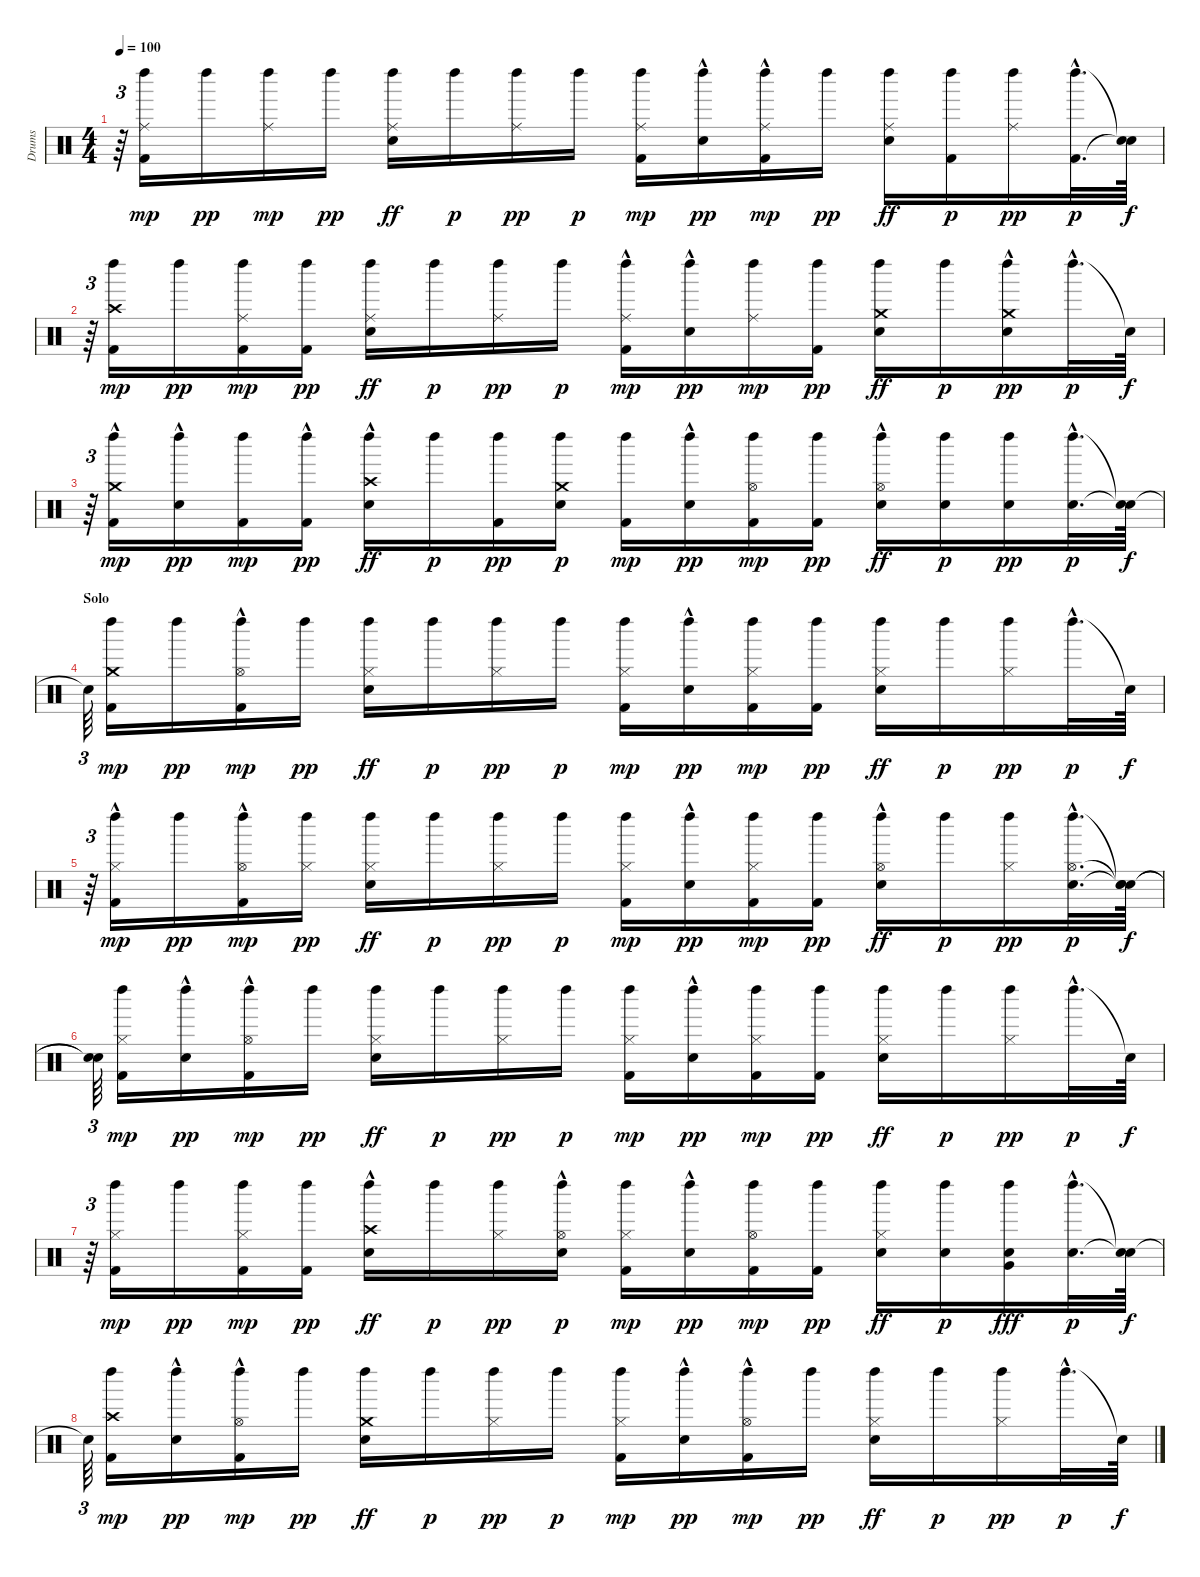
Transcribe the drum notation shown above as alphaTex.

\track ("Drums" "Drums") {instrument percussion}
\staff {score}
\articulation defaults
\ts (4 4)
\tempo 100
\clef neutral
\ks c
r.64{tu (3 2) dy f} ("Ride (middle)" "Kick (hit) 2" "Left Maraca (hit)").16{dy mp} "Left Maraca (hit)".16{dy pp} ("Ride (middle)" "Left Maraca (hit)").16{dy mp} "Left Maraca (hit)".16{dy pp} ("Ride (middle)" "Snare (hit) 2" "Left Maraca (hit)").16{dy ff} "Left Maraca (hit)".16{dy p} ("Ride (middle)" "Left Maraca (hit)").16{dy pp} "Left Maraca (hit)".16{dy p} ("Ride (middle)" "Kick (hit) 2" "Left Maraca (hit)").16{dy mp} ("Snare (hit) 2"{hac} "Left Maraca (hit)").16{dy pp} ("Ride (middle)" "Kick (hit) 2"{hac} "Left Maraca (hit)").16{dy mp} "Left Maraca (hit)".16{dy pp} ("Ride (middle)" "Snare (hit) 2" "Left Maraca (hit)").16{dy ff} ("Kick (hit) 2" "Left Maraca (hit)").16{dy p} ("Ride (middle)" "Left Maraca (hit)").16{dy pp} ("Kick (hit) 2"{hac} "Left Maraca (hit)"{hac}).32{d dy p} ("Snare (hit)"{t} "Snare (hit)"{t}).64{dy f} |
r.64{tu (3 2)} ("Crash high (hit)" "Kick (hit) 2" "Left Maraca (hit)").16{dy mp} "Left Maraca (hit)".16{dy pp} ("Ride (middle)" "Kick (hit) 2" "Left Maraca (hit)").16{dy mp} ("Kick (hit) 2" "Left Maraca (hit)").16{dy pp} ("Ride (middle)" "Snare (hit) 2" "Left Maraca (hit)").16{dy ff} "Left Maraca (hit)".16{dy p} ("Ride (middle)" "Left Maraca (hit)").16{dy pp} "Left Maraca (hit)".16{dy p} ("Ride (middle)" "Kick (hit) 2"{hac} "Left Maraca (hit)").16{dy mp} ("Snare (hit) 2"{hac} "Left Maraca (hit)").16{dy pp} ("Ride (middle)" "Left Maraca (hit)").16{dy mp} ("Kick (hit) 2" "Left Maraca (hit)").16{dy pp} ("Crash medium (hit)" "Snare (hit) 2" "Left Maraca (hit)").16{dy ff} "Left Maraca (hit)".16{dy p} ("Crash medium (hit)" "Snare (hit) 2"{hac} "Left Maraca (hit)").16{dy pp} "Left Maraca (hit)"{hac}.32{d dy p} "Snare (hit)"{t}.64{dy f} |
r.64{tu (3 2)} ("Crash medium (hit)"{hac} "Kick (hit) 2" "Left Maraca (hit)").16{dy mp} ("Snare (hit) 2"{hac} "Left Maraca (hit)").16{dy pp} ("Kick (hit) 2" "Left Maraca (hit)").16{dy mp} ("Kick (hit) 2"{hac} "Left Maraca (hit)").16{dy pp} ("Crash high (hit)" "Snare (hit) 2"{hac} "Left Maraca (hit)").16{dy ff} "Left Maraca (hit)".16{dy p} ("Kick (hit) 2" "Left Maraca (hit)").16{dy pp} ("Crash medium (hit)" "Snare (hit) 2" "Left Maraca (hit)").16{dy p} ("Kick (hit) 2" "Left Maraca (hit)").16{dy mp} ("Snare (hit) 2"{hac} "Left Maraca (hit)").16{dy pp} ("Kick (hit) 2" "Hi-Hat (open)" "Left Maraca (hit)").16{dy mp} ("Kick (hit) 2" "Left Maraca (hit)").16{dy pp} ("Snare (hit) 2" "Hi-Hat (open)"{hac} "Left Maraca (hit)").16{dy ff} ("Snare (hit) 2" "Left Maraca (hit)").16{dy p} ("Snare (hit) 2" "Left Maraca (hit)").16{dy pp} ("Snare (hit) 2"{hac} "Left Maraca (hit)"{hac}).32{d dy p} ("Snare (hit)"{t} "Snare (hit)"{t}).64{dy f} |
\section ("" "Solo")
"Snare (hit)"{t}.64{tu (3 2)} ("Crash medium (hit)" "Kick (hit) 2" "Left Maraca (hit)").16{dy mp} "Left Maraca (hit)".16{dy pp} ("Kick (hit) 2"{hac} "Hi-Hat (open)" "Left Maraca (hit)").16{dy mp} "Left Maraca (hit)".16{dy pp} ("Snare (hit) 2" "Hi-Hat (closed)" "Left Maraca (hit)").16{dy ff} "Left Maraca (hit)".16{dy p} ("Hi-Hat (closed)" "Left Maraca (hit)").16{dy pp} "Left Maraca (hit)".16{dy p} ("Kick (hit) 2" "Hi-Hat (closed)" "Left Maraca (hit)").16{dy mp} ("Snare (hit) 2"{hac} "Left Maraca (hit)").16{dy pp} ("Kick (hit) 2" "Hi-Hat (closed)" "Left Maraca (hit)").16{dy mp} ("Kick (hit) 2" "Left Maraca (hit)").16{dy pp} ("Snare (hit) 2" "Hi-Hat (closed)" "Left Maraca (hit)").16{dy ff} "Left Maraca (hit)".16{dy p} ("Hi-Hat (closed)" "Left Maraca (hit)").16{dy pp} "Left Maraca (hit)"{hac}.32{d dy p} "Snare (hit)"{t}.64{dy f} |
r.64{tu (3 2)} ("Kick (hit) 2" "Hi-Hat (closed)"{hac} "Left Maraca (hit)").16{dy mp} "Left Maraca (hit)".16{dy pp} ("Kick (hit) 2"{hac} "Hi-Hat (open)" "Left Maraca (hit)").16{dy mp} ("Hi-Hat (closed)" "Left Maraca (hit)").16{dy pp} ("Snare (hit) 2" "Hi-Hat (closed)" "Left Maraca (hit)").16{dy ff} "Left Maraca (hit)".16{dy p} ("Hi-Hat (closed)" "Left Maraca (hit)").16{dy pp} "Left Maraca (hit)".16{dy p} ("Kick (hit) 2" "Hi-Hat (closed)" "Left Maraca (hit)").16{dy mp} ("Snare (hit) 2"{hac} "Left Maraca (hit)").16{dy pp} ("Kick (hit) 2" "Hi-Hat (closed)" "Left Maraca (hit)").16{dy mp} ("Kick (hit) 2" "Left Maraca (hit)").16{dy pp} ("Snare (hit) 2"{hac} "Hi-Hat (open)"{hac} "Left Maraca (hit)").16{dy ff} "Left Maraca (hit)".16{dy p} ("Hi-Hat (closed)" "Left Maraca (hit)").16{dy pp} ("Snare (hit) 2"{hac} "Hi-Hat (open)"{hac} "Left Maraca (hit)"{hac}).32{d dy p} ("Snare (hit)"{t} "Snare (hit)"{t} "Snare (hit)"{t}).64{dy f} |
("Snare (hit)"{t} "Snare (hit)"{t}).64{tu (3 2)} ("Kick (hit) 2" "Hi-Hat (closed)" "Left Maraca (hit)").16{dy mp} ("Snare (hit) 2"{hac} "Left Maraca (hit)").16{dy pp} ("Kick (hit) 2"{hac} "Hi-Hat (open)" "Left Maraca (hit)").16{dy mp} "Left Maraca (hit)".16{dy pp} ("Snare (hit) 2" "Hi-Hat (closed)" "Left Maraca (hit)").16{dy ff} "Left Maraca (hit)".16{dy p} ("Hi-Hat (closed)" "Left Maraca (hit)").16{dy pp} "Left Maraca (hit)".16{dy p} ("Kick (hit) 2" "Hi-Hat (closed)" "Left Maraca (hit)").16{dy mp} ("Snare (hit) 2"{hac} "Left Maraca (hit)").16{dy pp} ("Kick (hit) 2" "Hi-Hat (closed)" "Left Maraca (hit)").16{dy mp} ("Kick (hit) 2" "Left Maraca (hit)").16{dy pp} ("Snare (hit) 2" "Hi-Hat (closed)" "Left Maraca (hit)").16{dy ff} "Left Maraca (hit)".16{dy p} ("Hi-Hat (closed)" "Left Maraca (hit)").16{dy pp} "Left Maraca (hit)"{hac}.32{d dy p} "Snare (hit)"{t}.64{dy f} |
r.64{tu (3 2)} ("Kick (hit) 2" "Hi-Hat (closed)" "Left Maraca (hit)").16{dy mp} "Left Maraca (hit)".16{dy pp} ("Kick (hit) 2" "Hi-Hat (closed)" "Left Maraca (hit)").16{dy mp} ("Kick (hit) 2" "Left Maraca (hit)").16{dy pp} ("Crash high (hit)"{hac} "Snare (hit) 2"{hac} "Left Maraca (hit)").16{dy ff} "Left Maraca (hit)".16{dy p} ("Hi-Hat (closed)" "Left Maraca (hit)").16{dy pp} ("Snare (hit) 2" "Hi-Hat (open)"{hac} "Left Maraca (hit)").16{dy p} ("Kick (hit) 2" "Hi-Hat (closed)" "Left Maraca (hit)").16{dy mp} ("Snare (hit) 2"{hac} "Left Maraca (hit)").16{dy pp} ("Kick (hit) 2" "Hi-Hat (open)" "Left Maraca (hit)").16{dy mp} ("Kick (hit) 2" "Left Maraca (hit)").16{dy pp} ("Snare (hit) 2" "Hi-Hat (closed)" "Left Maraca (hit)").16{dy ff} ("Snare (hit) 2" "Left Maraca (hit)").16{dy p} ("Very Low Tom (hit)" "Left Maraca (hit)" "Snare (hit) 2").16{dy fff} ("Snare (hit) 2"{hac} "Left Maraca (hit)"{hac}).32{d dy p} ("Snare (hit)"{t} "Snare (hit)"{t}).64{dy f} |
"Snare (hit)"{t}.64{tu (3 2)} ("Crash high (hit)" "Kick (hit) 2" "Left Maraca (hit)").16{dy mp} ("Snare (hit) 2"{hac} "Left Maraca (hit)").16{dy pp} ("Kick (hit) 2"{hac} "Hi-Hat (open)" "Left Maraca (hit)").16{dy mp} "Left Maraca (hit)".16{dy pp} ("Crash medium (hit)" "Snare (hit) 2" "Left Maraca (hit)").16{dy ff} "Left Maraca (hit)".16{dy p} ("Hi-Hat (closed)" "Left Maraca (hit)").16{dy pp} "Left Maraca (hit)".16{dy p} ("Kick (hit) 2" "Hi-Hat (closed)" "Left Maraca (hit)").16{dy mp} ("Snare (hit) 2"{hac} "Left Maraca (hit)").16{dy pp} ("Kick (hit) 2"{hac} "Hi-Hat (open)" "Left Maraca (hit)").16{dy mp} "Left Maraca (hit)".16{dy pp} ("Snare (hit) 2" "Hi-Hat (closed)" "Left Maraca (hit)").16{dy ff} "Left Maraca (hit)".16{dy p} ("Hi-Hat (closed)" "Left Maraca (hit)").16{dy pp} "Left Maraca (hit)"{hac}.32{d dy p} "Snare (hit)"{t}.64{dy f}
